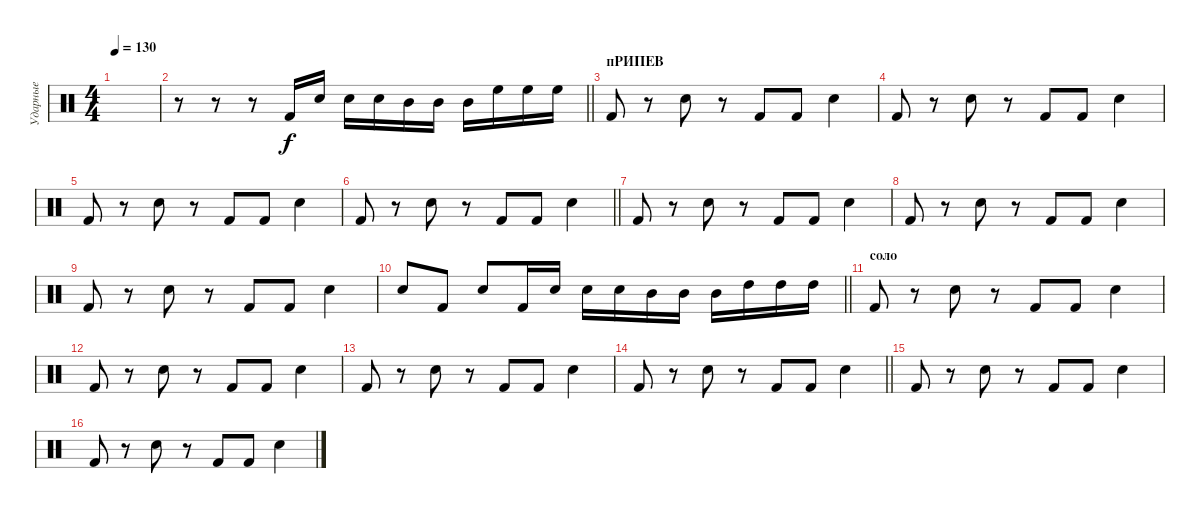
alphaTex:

\track ("Ударные" "Ударные") {instrument percussion}
\staff {score}
\articulation defaults
\ts (4 4)
\tempo 130
\clef neutral
\ks c
|
\barLineRight lightlight
r.8 r.8 r.8 "Kick (hit) 2".16 "Snare (hit) 2".16 "Snare (hit) 2".16 "Snare (hit) 2".16 "Mid Tom (hit)".16 "Mid Tom (hit)".16 "Mid Tom (hit)".16 "High Floor Tom (hit)".16 "High Floor Tom (hit)".16 "High Floor Tom (hit)".16 |
\section ("" "пРИПЕВ")
"Kick (hit) 2".8 r.8 "Snare (hit) 2".8 r.8 "Kick (hit) 2".8 "Kick (hit) 2".8 "Snare (hit) 2".4 |
"Kick (hit) 2".8 r.8 "Snare (hit) 2".8 r.8 "Kick (hit) 2".8 "Kick (hit) 2".8 "Snare (hit) 2".4 |
"Kick (hit) 2".8 r.8 "Snare (hit) 2".8 r.8 "Kick (hit) 2".8 "Kick (hit) 2".8 "Snare (hit) 2".4 |
\barLineRight lightlight "Kick (hit) 2".8
r.8 "Snare (hit) 2".8 r.8 "Kick (hit) 2".8 "Kick (hit) 2".8 "Snare (hit) 2".4 |
"Kick (hit) 2".8 r.8 "Snare (hit) 2".8 r.8 "Kick (hit) 2".8 "Kick (hit) 2".8 "Snare (hit) 2".4 |
"Kick (hit) 2".8 r.8 "Snare (hit) 2".8 r.8 "Kick (hit) 2".8 "Kick (hit) 2".8 "Snare (hit) 2".4 |
"Kick (hit) 2".8 r.8 "Snare (hit) 2".8 r.8 "Kick (hit) 2".8 "Kick (hit) 2".8 "Snare (hit) 2".4 |
\barLineRight lightlight "Snare (hit) 2".8 "Kick (hit) 2".8 "Snare (hit) 2".8 "Kick (hit) 2".16 "Snare (hit) 2".16 "Snare (hit) 2".16 "Snare (hit) 2".16 "Mid Tom (hit)".16 "Mid Tom (hit)".16 "Mid Tom (hit)".16 "High Tom (hit)".16 "High Tom (hit)".16 "High Tom (hit)".16
|
\section ("" "соло")
"Kick (hit) 2".8 r.8 "Snare (hit) 2".8 r.8 "Kick (hit) 2".8 "Kick (hit) 2".8 "Snare (hit) 2".4 |
"Kick (hit) 2".8 r.8 "Snare (hit) 2".8 r.8 "Kick (hit) 2".8 "Kick (hit) 2".8 "Snare (hit) 2".4 |
"Kick (hit) 2".8 r.8 "Snare (hit) 2".8 r.8 "Kick (hit) 2".8 "Kick (hit) 2".8 "Snare (hit) 2".4 |
\barLineRight lightlight "Kick (hit) 2".8
r.8 "Snare (hit) 2".8 r.8 "Kick (hit) 2".8 "Kick (hit) 2".8 "Snare (hit) 2".4 |
"Kick (hit) 2".8 r.8 "Snare (hit) 2".8 r.8 "Kick (hit) 2".8 "Kick (hit) 2".8 "Snare (hit) 2".4 |
"Kick (hit) 2".8 r.8 "Snare (hit) 2".8 r.8 "Kick (hit) 2".8 "Kick (hit) 2".8 "Snare (hit) 2".4
